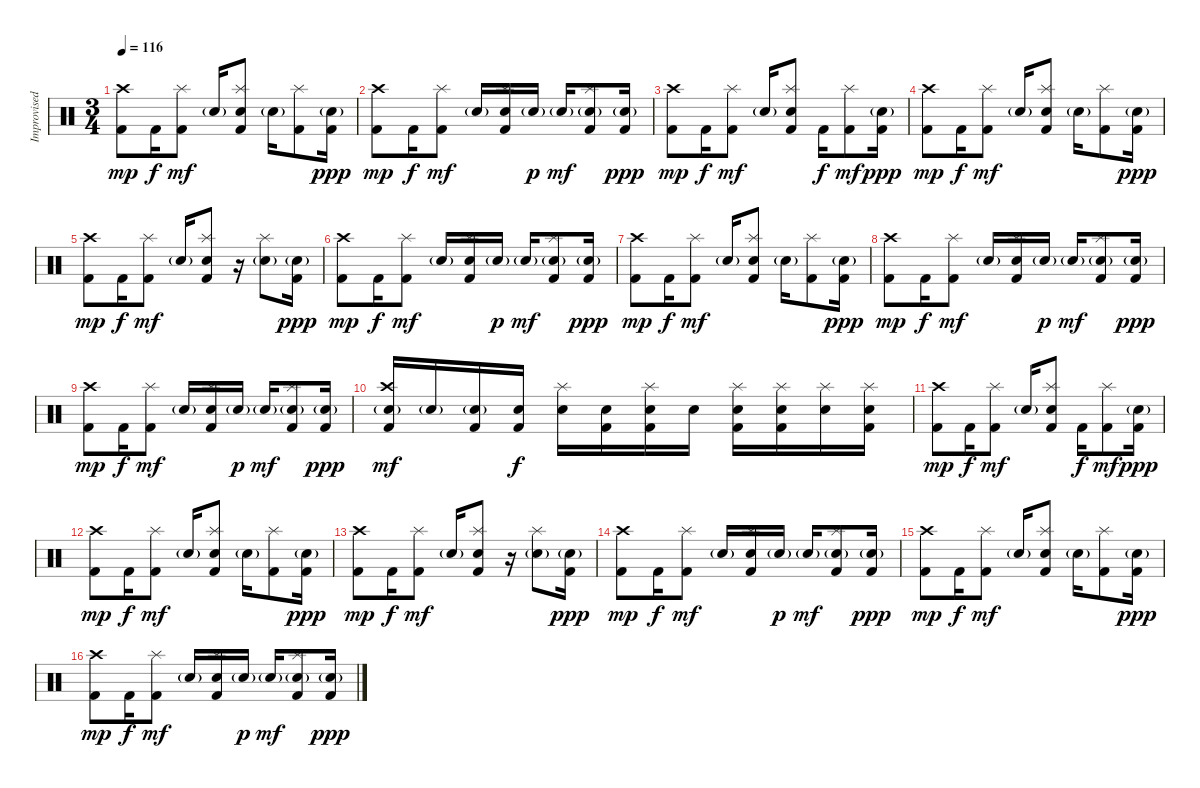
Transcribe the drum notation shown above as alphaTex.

\track ("Improvised Drums" "Improvised") {instrument percussion}
\staff {score}
\articulation defaults
\ts (3 4)
\tempo 116
\clef neutral
\ks c
("Kick (hit) 2" "Crash high (hit)").8{dy mp} "Kick (hit) 2".16{dy f} ("Kick (hit) 2" "Splash (hit)").8{dy mf} "Snare (hit) 2"{g}.16 ("Kick (hit) 2" "Snare (hit) 2" "Splash (hit)").8 "Snare (hit) 2"{g}.16 ("Kick (hit) 2" "Splash (hit)").8 ("Kick (hit) 2" "Electric Snare (hit)"{g}).16{dy ppp} |
("Kick (hit) 2" "Crash high (hit)").8{dy mp} "Kick (hit) 2".16{dy f} ("Kick (hit) 2" "Splash (hit)").8{dy mf} "Snare (hit) 2"{g}.16 ("Kick (hit) 2" "Snare (hit) 2" "Splash (hit)").16 "Snare (hit) 2"{g}.16{dy p} "Snare (hit) 2"{g}.16{dy mf} ("Kick (hit) 2" "Snare (hit) 2"{g} "Splash (hit)").8 ("Kick (hit) 2" "Electric Snare (hit)"{g}).16{dy ppp} |
("Kick (hit) 2" "Crash high (hit)").8{dy mp} "Kick (hit) 2".16{dy f} ("Kick (hit) 2" "Splash (hit)").8{dy mf} "Snare (hit) 2"{g}.16 ("Kick (hit) 2" "Snare (hit) 2" "Splash (hit)").8 "Kick (hit) 2".16{dy f} ("Kick (hit) 2" "Splash (hit)").8{dy mf} ("Kick (hit) 2" "Electric Snare (hit)"{g}).16{dy ppp} |
("Kick (hit) 2" "Crash high (hit)").8{dy mp} "Kick (hit) 2".16{dy f} ("Kick (hit) 2" "Splash (hit)").8{dy mf} "Snare (hit) 2"{g}.16 ("Kick (hit) 2" "Snare (hit) 2" "Splash (hit)").8 "Snare (hit) 2"{g}.16 ("Kick (hit) 2" "Splash (hit)").8 ("Kick (hit) 2" "Electric Snare (hit)"{g}).16{dy ppp} |
("Kick (hit) 2" "Crash high (hit)").8{dy mp} "Kick (hit) 2".16{dy f} ("Kick (hit) 2" "Splash (hit)").8{dy mf} "Snare (hit) 2"{g}.16 ("Kick (hit) 2" "Snare (hit) 2" "Splash (hit)").8 r.16 ("Snare (hit) 2"{g} "Splash (hit)").8 ("Kick (hit) 2" "Electric Snare (hit)"{g}).16{dy ppp} |
("Kick (hit) 2" "Crash high (hit)").8{dy mp} "Kick (hit) 2".16{dy f} ("Kick (hit) 2" "Splash (hit)").8{dy mf} "Snare (hit) 2"{g}.16 ("Kick (hit) 2" "Snare (hit) 2" "Splash (hit)").16 "Snare (hit) 2"{g}.16{dy p} "Snare (hit) 2"{g}.16{dy mf} ("Kick (hit) 2" "Snare (hit) 2"{g} "Splash (hit)").8 ("Kick (hit) 2" "Electric Snare (hit)"{g}).16{dy ppp} |
("Kick (hit) 2" "Crash high (hit)").8{dy mp} "Kick (hit) 2".16{dy f} ("Kick (hit) 2" "Splash (hit)").8{dy mf} "Snare (hit) 2"{g}.16 ("Kick (hit) 2" "Snare (hit) 2" "Splash (hit)").8 "Snare (hit) 2"{g}.16 ("Kick (hit) 2" "Splash (hit)").8 ("Kick (hit) 2" "Electric Snare (hit)"{g}).16{dy ppp} |
("Kick (hit) 2" "Crash high (hit)").8{dy mp} "Kick (hit) 2".16{dy f} ("Kick (hit) 2" "Splash (hit)").8{dy mf} "Snare (hit) 2"{g}.16 ("Kick (hit) 2" "Snare (hit) 2" "Splash (hit)").16 "Snare (hit) 2"{g}.16{dy p} "Snare (hit) 2"{g}.16{dy mf} ("Kick (hit) 2" "Snare (hit) 2"{g} "Splash (hit)").8 ("Kick (hit) 2" "Electric Snare (hit)"{g}).16{dy ppp} |
("Kick (hit) 2" "Crash high (hit)").8{dy mp} "Kick (hit) 2".16{dy f} ("Kick (hit) 2" "Splash (hit)").8{dy mf} "Snare (hit) 2"{g}.16 ("Kick (hit) 2" "Snare (hit) 2" "Splash (hit)").16 "Snare (hit) 2"{g}.16{dy p} "Snare (hit) 2"{g}.16{dy mf} ("Kick (hit) 2" "Snare (hit) 2"{g} "Splash (hit)").8 ("Kick (hit) 2" "Electric Snare (hit)"{g}).16{dy ppp} |
("Kick (hit) 2" "Snare (hit) 2"{g} "Crash high (hit)").16{dy mf} "Snare (hit) 2"{g}.16 ("Kick (hit) 2" "Snare (hit) 2"{g}).16 ("Kick (hit) 2" "Snare (hit) 2").16{dy f} ("Snare (hit) 2" "Splash (hit)").16 ("Kick (hit) 2" "Snare (hit) 2").16 ("Kick (hit) 2" "Snare (hit) 2" "Splash (hit)").16 "Snare (hit) 2".16 ("Kick (hit) 2" "Snare (hit) 2" "Splash (hit)").16 ("Kick (hit) 2" "Snare (hit) 2" "Splash (hit)").16 ("Snare (hit) 2" "Splash (hit)").16 ("Kick (hit) 2" "Snare (hit) 2" "Splash (hit)").16 |
("Kick (hit) 2" "Crash high (hit)").8{dy mp} "Kick (hit) 2".16{dy f} ("Kick (hit) 2" "Splash (hit)").8{dy mf} "Snare (hit) 2"{g}.16 ("Kick (hit) 2" "Snare (hit) 2" "Splash (hit)").8 "Kick (hit) 2".16{dy f} ("Kick (hit) 2" "Splash (hit)").8{dy mf} ("Kick (hit) 2" "Electric Snare (hit)"{g}).16{dy ppp} |
("Kick (hit) 2" "Crash high (hit)").8{dy mp} "Kick (hit) 2".16{dy f} ("Kick (hit) 2" "Splash (hit)").8{dy mf} "Snare (hit) 2"{g}.16 ("Kick (hit) 2" "Snare (hit) 2" "Splash (hit)").8 "Snare (hit) 2"{g}.16 ("Kick (hit) 2" "Splash (hit)").8 ("Kick (hit) 2" "Electric Snare (hit)"{g}).16{dy ppp} |
("Kick (hit) 2" "Crash high (hit)").8{dy mp} "Kick (hit) 2".16{dy f} ("Kick (hit) 2" "Splash (hit)").8{dy mf} "Snare (hit) 2"{g}.16 ("Kick (hit) 2" "Snare (hit) 2" "Splash (hit)").8 r.16 ("Snare (hit) 2"{g} "Splash (hit)").8 ("Kick (hit) 2" "Electric Snare (hit)"{g}).16{dy ppp} |
("Kick (hit) 2" "Crash high (hit)").8{dy mp} "Kick (hit) 2".16{dy f} ("Kick (hit) 2" "Splash (hit)").8{dy mf} "Snare (hit) 2"{g}.16 ("Kick (hit) 2" "Snare (hit) 2" "Splash (hit)").16 "Snare (hit) 2"{g}.16{dy p} "Snare (hit) 2"{g}.16{dy mf} ("Kick (hit) 2" "Snare (hit) 2"{g} "Splash (hit)").8 ("Kick (hit) 2" "Electric Snare (hit)"{g}).16{dy ppp} |
("Kick (hit) 2" "Crash high (hit)").8{dy mp} "Kick (hit) 2".16{dy f} ("Kick (hit) 2" "Splash (hit)").8{dy mf} "Snare (hit) 2"{g}.16 ("Kick (hit) 2" "Snare (hit) 2" "Splash (hit)").8 "Snare (hit) 2"{g}.16 ("Kick (hit) 2" "Splash (hit)").8 ("Kick (hit) 2" "Electric Snare (hit)"{g}).16{dy ppp} |
("Kick (hit) 2" "Crash high (hit)").8{dy mp} "Kick (hit) 2".16{dy f} ("Kick (hit) 2" "Splash (hit)").8{dy mf} "Snare (hit) 2"{g}.16 ("Kick (hit) 2" "Snare (hit) 2" "Splash (hit)").16 "Snare (hit) 2"{g}.16{dy p} "Snare (hit) 2"{g}.16{dy mf} ("Kick (hit) 2" "Snare (hit) 2"{g} "Splash (hit)").8 ("Kick (hit) 2" "Electric Snare (hit)"{g}).16{dy ppp}
